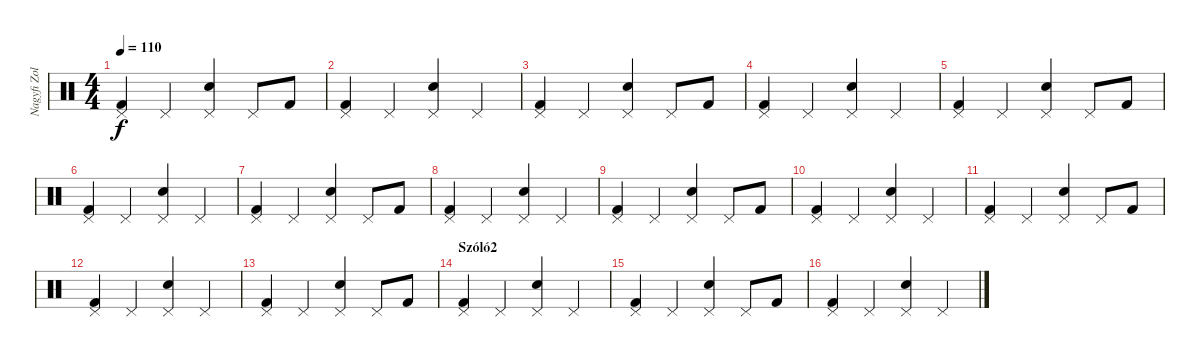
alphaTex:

\track ("Nagyfi Zoltán (dob)" "Nagyfi Zol") {instrument percussion}
\staff {score}
\articulation defaults
\ts (4 4)
\tempo 110
\clef neutral
\ks c
("Pedal Hi-Hat (hit)" "Kick (hit) 2").4{dy f} "Pedal Hi-Hat (hit)".4 ("Pedal Hi-Hat (hit)" "Snare (hit) 2").4 "Pedal Hi-Hat (hit)".8 "Kick (hit) 2".8 |
("Pedal Hi-Hat (hit)" "Kick (hit) 2").4 "Pedal Hi-Hat (hit)".4 ("Pedal Hi-Hat (hit)" "Snare (hit) 2").4 "Pedal Hi-Hat (hit)".4 |
("Pedal Hi-Hat (hit)" "Kick (hit) 2").4 "Pedal Hi-Hat (hit)".4 ("Pedal Hi-Hat (hit)" "Snare (hit) 2").4 "Pedal Hi-Hat (hit)".8 "Kick (hit) 2".8 |
("Pedal Hi-Hat (hit)" "Kick (hit) 2").4 "Pedal Hi-Hat (hit)".4 ("Pedal Hi-Hat (hit)" "Snare (hit) 2").4 "Pedal Hi-Hat (hit)".4 |
("Pedal Hi-Hat (hit)" "Kick (hit) 2").4 "Pedal Hi-Hat (hit)".4 ("Pedal Hi-Hat (hit)" "Snare (hit) 2").4 "Pedal Hi-Hat (hit)".8 "Kick (hit) 2".8 |
("Pedal Hi-Hat (hit)" "Kick (hit) 2").4 "Pedal Hi-Hat (hit)".4 ("Pedal Hi-Hat (hit)" "Snare (hit) 2").4 "Pedal Hi-Hat (hit)".4 |
("Pedal Hi-Hat (hit)" "Kick (hit) 2").4 "Pedal Hi-Hat (hit)".4 ("Pedal Hi-Hat (hit)" "Snare (hit) 2").4 "Pedal Hi-Hat (hit)".8 "Kick (hit) 2".8 |
("Pedal Hi-Hat (hit)" "Kick (hit) 2").4 "Pedal Hi-Hat (hit)".4 ("Pedal Hi-Hat (hit)" "Snare (hit) 2").4 "Pedal Hi-Hat (hit)".4 |
("Pedal Hi-Hat (hit)" "Kick (hit) 2").4 "Pedal Hi-Hat (hit)".4 ("Pedal Hi-Hat (hit)" "Snare (hit) 2").4 "Pedal Hi-Hat (hit)".8 "Kick (hit) 2".8 |
("Pedal Hi-Hat (hit)" "Kick (hit) 2").4 "Pedal Hi-Hat (hit)".4 ("Pedal Hi-Hat (hit)" "Snare (hit) 2").4 "Pedal Hi-Hat (hit)".4 |
("Pedal Hi-Hat (hit)" "Kick (hit) 2").4 "Pedal Hi-Hat (hit)".4 ("Pedal Hi-Hat (hit)" "Snare (hit) 2").4 "Pedal Hi-Hat (hit)".8 "Kick (hit) 2".8 |
("Pedal Hi-Hat (hit)" "Kick (hit) 2").4 "Pedal Hi-Hat (hit)".4 ("Pedal Hi-Hat (hit)" "Snare (hit) 2").4 "Pedal Hi-Hat (hit)".4 |
("Pedal Hi-Hat (hit)" "Kick (hit) 2").4 "Pedal Hi-Hat (hit)".4 ("Pedal Hi-Hat (hit)" "Snare (hit) 2").4 "Pedal Hi-Hat (hit)".8 "Kick (hit) 2".8 |
\section ("" "Szóló2")
("Pedal Hi-Hat (hit)" "Kick (hit) 2").4 "Pedal Hi-Hat (hit)".4 ("Pedal Hi-Hat (hit)" "Snare (hit) 2").4 "Pedal Hi-Hat (hit)".4 |
("Pedal Hi-Hat (hit)" "Kick (hit) 2").4 "Pedal Hi-Hat (hit)".4 ("Pedal Hi-Hat (hit)" "Snare (hit) 2").4 "Pedal Hi-Hat (hit)".8 "Kick (hit) 2".8 |
("Pedal Hi-Hat (hit)" "Kick (hit) 2").4 "Pedal Hi-Hat (hit)".4 ("Pedal Hi-Hat (hit)" "Snare (hit) 2").4 "Pedal Hi-Hat (hit)".4
